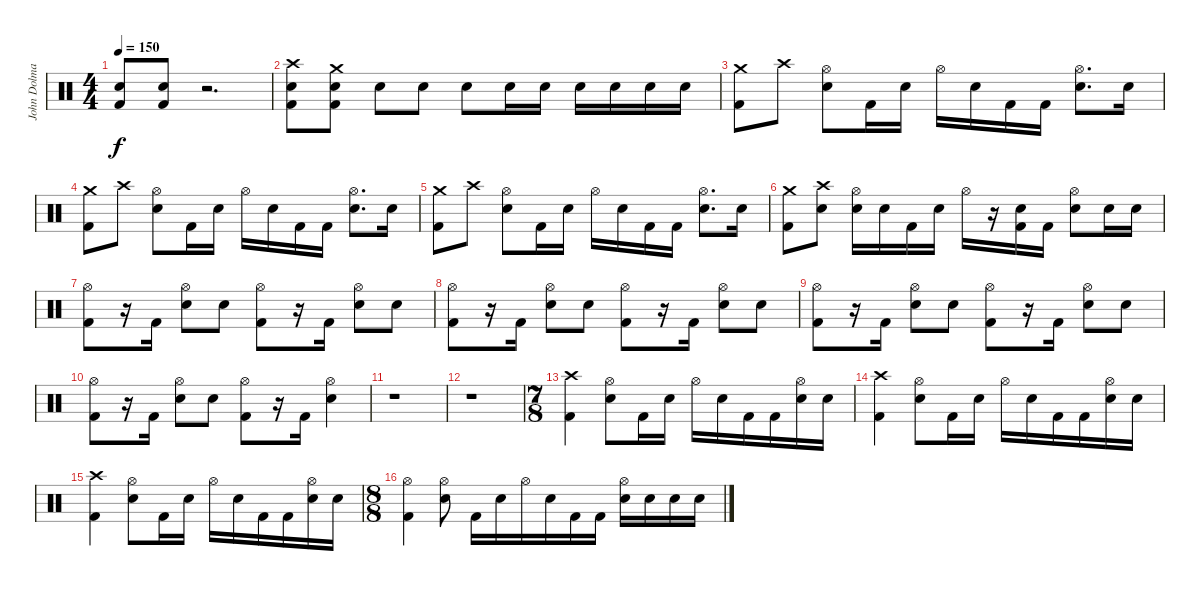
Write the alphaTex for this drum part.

\track ("John Dolmayan" "John Dolma") {instrument percussion}
\staff {score}
\articulation defaults
\ts (4 4)
\tempo 150
\clef neutral
\ks c
("Electric Snare (hit)" "Kick (hit) 2").8{dy f} ("Electric Snare (hit)" "Kick (hit) 2").8 r.2{d} |
("Crash high (hit)" "Electric Snare (hit)" "Kick (hit) 2").8 ("Crash medium (hit)" "Electric Snare (hit)" "Kick (hit) 2").8 "Electric Snare (hit)".8 "Electric Snare (hit)".8 "Electric Snare (hit)".8 "Electric Snare (hit)".16 "Electric Snare (hit)".16 "Electric Snare (hit)".16 "Electric Snare (hit)".16 "Electric Snare (hit)".16 "Electric Snare (hit)".16 |
("Crash medium (hit)" "Kick (hit) 2").8 "Crash high (hit)".8 ("Hi-Hat (open)" "Electric Snare (hit)").8 "Kick (hit) 2".16 "Electric Snare (hit)".16 "Hi-Hat (open)".16 "Electric Snare (hit)".16 "Kick (hit) 2".16 "Kick (hit) 2".16 ("Hi-Hat (open)" "Electric Snare (hit)").8{d} "Electric Snare (hit)".16 |
("Crash medium (hit)" "Kick (hit) 2").8 "Crash high (hit)".8 ("Hi-Hat (open)" "Electric Snare (hit)").8 "Kick (hit) 2".16 "Electric Snare (hit)".16 "Hi-Hat (open)".16 "Electric Snare (hit)".16 "Kick (hit) 2".16 "Kick (hit) 2".16 ("Hi-Hat (open)" "Electric Snare (hit)").8{d} "Electric Snare (hit)".16 |
("Crash medium (hit)" "Kick (hit) 2").8 "Crash high (hit)".8 ("Hi-Hat (open)" "Electric Snare (hit)").8 "Kick (hit) 2".16 "Electric Snare (hit)".16 "Hi-Hat (open)".16 "Electric Snare (hit)".16 "Kick (hit) 2".16 "Kick (hit) 2".16 ("Hi-Hat (open)" "Electric Snare (hit)").8{d} "Electric Snare (hit)".16 |
("Crash medium (hit)" "Kick (hit) 2").8 ("Crash high (hit)" "Electric Snare (hit)").8 ("Hi-Hat (open)" "Electric Snare (hit)").16 "Electric Snare (hit)".16 "Kick (hit) 2".16 "Electric Snare (hit)".16 "Hi-Hat (open)".16 r.16 ("Electric Snare (hit)" "Kick (hit) 2").16 "Kick (hit) 2".16 ("Hi-Hat (open)" "Electric Snare (hit)").8 "Electric Snare (hit)".16 "Electric Snare (hit)".16 |
("Hi-Hat (open)" "Kick (hit) 2").8 r.16 "Kick (hit) 2".16 ("Hi-Hat (open)" "Electric Snare (hit)").8 "Electric Snare (hit)".8 ("Hi-Hat (open)" "Kick (hit) 2").8 r.16 "Kick (hit) 2".16 ("Hi-Hat (open)" "Electric Snare (hit)").8 "Electric Snare (hit)".8 |
("Hi-Hat (open)" "Kick (hit) 2").8 r.16 "Kick (hit) 2".16 ("Hi-Hat (open)" "Electric Snare (hit)").8 "Electric Snare (hit)".8 ("Hi-Hat (open)" "Kick (hit) 2").8 r.16 "Kick (hit) 2".16 ("Hi-Hat (open)" "Electric Snare (hit)").8 "Electric Snare (hit)".8 |
("Hi-Hat (open)" "Kick (hit) 2").8 r.16 "Kick (hit) 2".16 ("Hi-Hat (open)" "Electric Snare (hit)").8 "Electric Snare (hit)".8 ("Hi-Hat (open)" "Kick (hit) 2").8 r.16 "Kick (hit) 2".16 ("Hi-Hat (open)" "Electric Snare (hit)").8 "Electric Snare (hit)".8 |
("Hi-Hat (open)" "Kick (hit) 2").8 r.16 "Kick (hit) 2".16 ("Hi-Hat (open)" "Electric Snare (hit)").8 "Electric Snare (hit)".8 ("Hi-Hat (open)" "Kick (hit) 2").8 r.16 "Kick (hit) 2".16 ("Hi-Hat (open)" "Electric Snare (hit)").4 |
r.1 |
r.1 |
\ts (7 8)
("Crash high (hit)" "Kick (hit) 2").4 ("Hi-Hat (open)" "Electric Snare (hit)").8 "Kick (hit) 2".16 "Electric Snare (hit)".16 "Hi-Hat (open)".16 "Electric Snare (hit)".16 "Kick (hit) 2".16 "Kick (hit) 2".16 ("Hi-Hat (open)" "Electric Snare (hit)").16 "Electric Snare (hit)".16 |
("Crash high (hit)" "Kick (hit) 2").4 ("Hi-Hat (open)" "Electric Snare (hit)").8 "Kick (hit) 2".16 "Electric Snare (hit)".16 "Hi-Hat (open)".16 "Electric Snare (hit)".16 "Kick (hit) 2".16 "Kick (hit) 2".16 ("Hi-Hat (open)" "Electric Snare (hit)").16 "Electric Snare (hit)".16 |
("Crash high (hit)" "Kick (hit) 2").4 ("Hi-Hat (open)" "Electric Snare (hit)").8 "Kick (hit) 2".16 "Electric Snare (hit)".16 "Hi-Hat (open)".16 "Electric Snare (hit)".16 "Kick (hit) 2".16 "Kick (hit) 2".16 ("Hi-Hat (open)" "Electric Snare (hit)").16 "Electric Snare (hit)".16 |
\ts (8 8)
("Hi-Hat (open)" "Kick (hit) 2").4 ("Hi-Hat (open)" "Electric Snare (hit)").8 "Kick (hit) 2".16 "Electric Snare (hit)".16 "Hi-Hat (open)".16 "Electric Snare (hit)".16 "Kick (hit) 2".16 "Kick (hit) 2".16 ("Hi-Hat (open)" "Electric Snare (hit)").16 "Electric Snare (hit)".16 "Electric Snare (hit)".16 "Electric Snare (hit)".16
